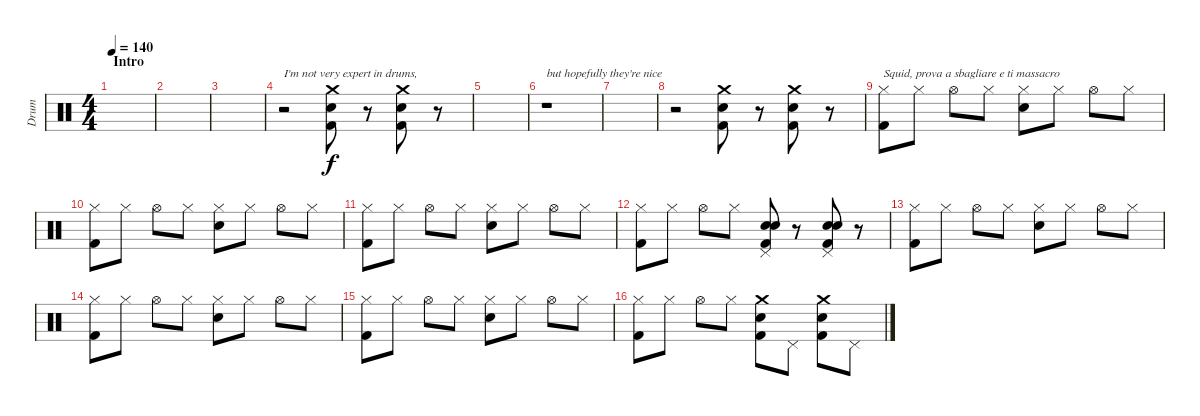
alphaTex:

\track ("Drum" "Drum") {instrument percussion}
\staff {score}
\articulation defaults
\ts (4 4)
\section ("" "Intro")
\tempo 140
\clef neutral
\ks c
|
|
|
r.2{txt "I'm not very expert in drums, "} ("Crash medium (hit)" "Electric Snare (hit)" "Kick (hit) 2").8 r.8 ("Crash medium (hit)" "Electric Snare (hit)" "Kick (hit) 2").8 r.8 |
|
r.1{txt "but hopefully they're nice "} |
|
r.2 ("Crash medium (hit)" "Electric Snare (hit)" "Kick (hit) 2").8 r.8 ("Crash medium (hit)" "Electric Snare (hit)" "Kick (hit) 2").8 r.8 |
("Hi-Hat (closed)" "Kick (hit) 2").8{txt "Squid, prova a sbagliare e ti massacro"} "Hi-Hat (closed)".8 "Hi-Hat (open)".8 "Hi-Hat (closed)".8 ("Hi-Hat (closed)" "Electric Snare (hit)").8 "Hi-Hat (closed)".8 "Hi-Hat (open)".8 "Hi-Hat (closed)".8 |
("Hi-Hat (closed)" "Kick (hit) 2").8 "Hi-Hat (closed)".8 "Hi-Hat (open)".8 "Hi-Hat (closed)".8 ("Hi-Hat (closed)" "Electric Snare (hit)").8 "Hi-Hat (closed)".8 "Hi-Hat (open)".8 "Hi-Hat (closed)".8 |
("Hi-Hat (closed)" "Kick (hit) 2").8 "Hi-Hat (closed)".8 "Hi-Hat (open)".8 "Hi-Hat (closed)".8 ("Hi-Hat (closed)" "Electric Snare (hit)").8 "Hi-Hat (closed)".8 "Hi-Hat (open)".8 "Hi-Hat (closed)".8 |
("Hi-Hat (closed)" "Kick (hit) 2").8 "Hi-Hat (closed)".8 "Hi-Hat (open)".8 "Hi-Hat (closed)".8 ("Pedal Hi-Hat (hit)" "Electric Snare (hit)" "Electric Snare (hit)" "Kick (hit) 2").8 r.8 ("Pedal Hi-Hat (hit)" "Electric Snare (hit)" "Electric Snare (hit)" "Kick (hit) 2").8 r.8 |
("Hi-Hat (closed)" "Kick (hit) 2").8 "Hi-Hat (closed)".8 "Hi-Hat (open)".8 "Hi-Hat (closed)".8 ("Hi-Hat (closed)" "Electric Snare (hit)").8 "Hi-Hat (closed)".8 "Hi-Hat (open)".8 "Hi-Hat (closed)".8 |
("Hi-Hat (closed)" "Kick (hit) 2").8 "Hi-Hat (closed)".8 "Hi-Hat (open)".8 "Hi-Hat (closed)".8 ("Hi-Hat (closed)" "Electric Snare (hit)").8 "Hi-Hat (closed)".8 "Hi-Hat (open)".8 "Hi-Hat (closed)".8 |
("Hi-Hat (closed)" "Kick (hit) 2").8 "Hi-Hat (closed)".8 "Hi-Hat (open)".8 "Hi-Hat (closed)".8 ("Hi-Hat (closed)" "Electric Snare (hit)").8 "Hi-Hat (closed)".8 "Hi-Hat (open)".8 "Hi-Hat (closed)".8 |
("Hi-Hat (closed)" "Kick (hit) 2").8 "Hi-Hat (closed)".8 "Hi-Hat (open)".8 "Hi-Hat (closed)".8 ("Crash medium (hit)" "Electric Snare (hit)" "Kick (hit) 2").8 "Pedal Hi-Hat (hit)".8 ("Crash medium (hit)" "Electric Snare (hit)" "Kick (hit) 2").8 "Pedal Hi-Hat (hit)".8
